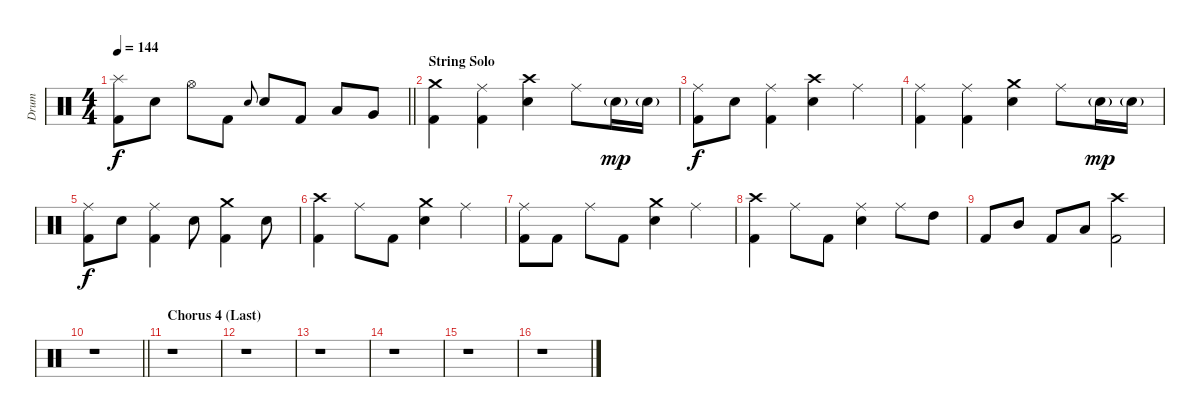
\track ("Drum" "Drum") {instrument percussion}
\staff {score}
\articulation defaults
\ts (4 4)
\tempo 144
\clef neutral
\barLineRight lightlight
\ks c
("Splash (hit)" "Kick (hit) 2").8{dy f} "Electric Snare (hit)".8 "Hi-Hat (open)".8 "Kick (hit) 2".8 "Electric Snare (hit)".8{gr onbeat} "Electric Snare (hit)".8 "Kick (hit) 2".8 "Low Tom (hit)".8 "Very Low Tom (hit)".8 |
\section ("" "String Solo")
("Crash medium (hit)" "Kick (hit) 2").4 ("Ride (middle)" "Kick (hit) 2").4 ("Crash high (hit)" "Electric Snare (hit)").4 "Ride (middle)".8 "Electric Snare (hit)"{g}.16{dy mp} "Electric Snare (hit)"{g}.16 |
("Ride (middle)" "Kick (hit) 2").8{dy f} "Electric Snare (hit)".8 ("Ride (middle)" "Kick (hit) 2").4 ("Crash high (hit)" "Electric Snare (hit)").4 "Ride (middle)".4 |
("Ride (middle)" "Kick (hit) 2").4 ("Ride (middle)" "Kick (hit) 2").4 ("Crash medium (hit)" "Electric Snare (hit)").4 "Ride (middle)".8 "Electric Snare (hit)"{g}.16{dy mp} "Electric Snare (hit)"{g}.16 |
("Ride (middle)" "Kick (hit) 2").8{dy f} "Electric Snare (hit)".8 ("Ride (middle)" "Kick (hit) 2").4 "Electric Snare (hit)".8 ("Crash medium (hit)" "Kick (hit) 2").4 "Electric Snare (hit)".8 |
("Crash high (hit)" "Kick (hit) 2").4 "Ride (middle)".8 "Kick (hit) 2".8 ("Crash medium (hit)" "Electric Snare (hit)").4 "Ride (middle)".4 |
("Ride (middle)" "Kick (hit) 2").8 "Kick (hit) 2".8 "Ride (middle)".8 "Kick (hit) 2".8 ("Crash medium (hit)" "Electric Snare (hit)").4 "Ride (middle)".4 |
("Crash high (hit)" "Kick (hit) 2").4 "Ride (middle)".8 "Kick (hit) 2".8 ("Ride (middle)" "Electric Snare (hit)").4 "Ride (middle)".8 "High Tom (hit)".8 |
"Kick (hit) 2".8 "Mid Tom (hit)".8 "Kick (hit) 2".8 "Low Tom (hit)".8 ("Crash high (hit)" "Kick (hit) 2").2 |
\barLineRight lightlight
r.1 |
\section ("" "Chorus 4 (Last)")
r.1 |
r.1 |
r.1 |
r.1 |
r.1 |
r.1
